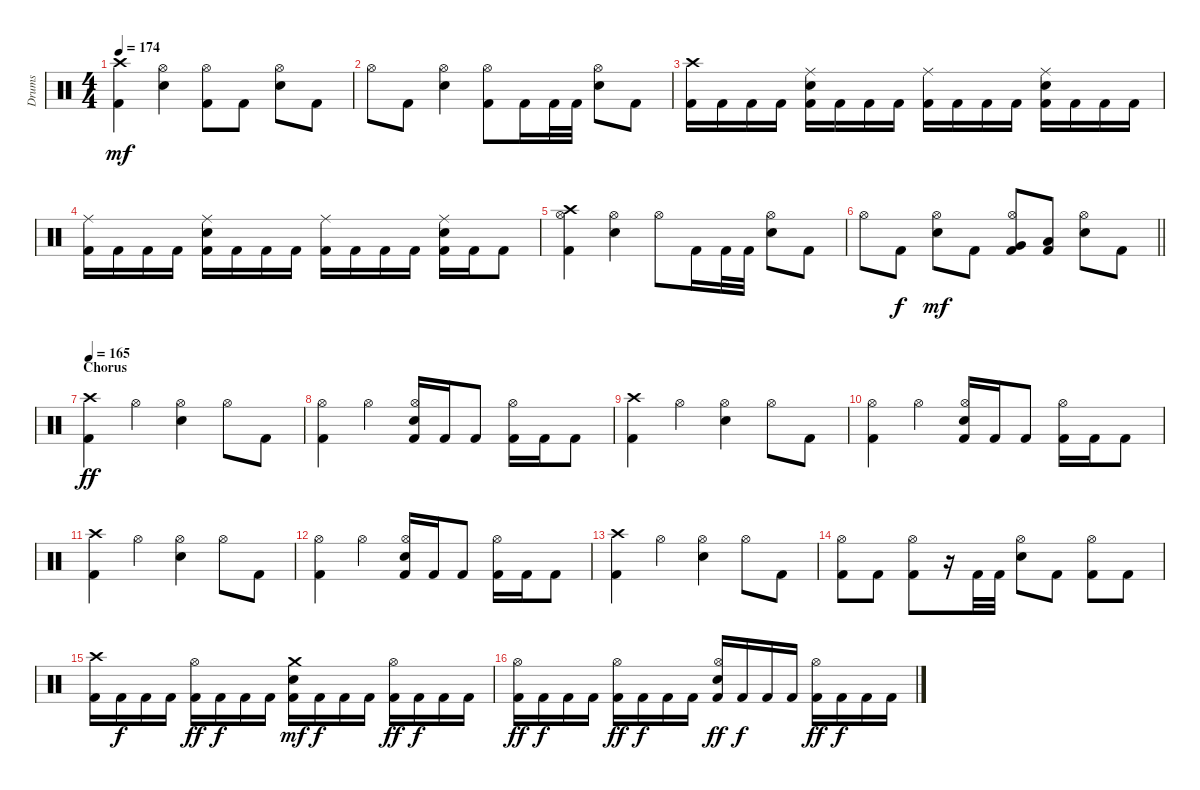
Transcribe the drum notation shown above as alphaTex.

\track ("Drums" "Drums") {instrument percussion}
\staff {score}
\articulation defaults
\ts (4 4)
\tempo 174
\clef neutral
\ks c
("Crash high (hit)" "Kick (hit) 2").4{dy mf} ("Hi-Hat (open)" "Snare (hit) 2").4 ("Hi-Hat (open)" "Kick (hit) 2").8 "Kick (hit) 2".8 ("Hi-Hat (open)" "Snare (hit) 2").8 "Kick (hit) 2".8 |
"Hi-Hat (open)".8 "Kick (hit) 2".8 ("Hi-Hat (open)" "Snare (hit) 2").4 ("Hi-Hat (open)" "Kick (hit) 2").8 "Kick (hit) 2".16 "Kick (hit) 2".32 "Kick (hit) 2".32 ("Hi-Hat (open)" "Snare (hit) 2").8 "Kick (hit) 2".8 |
("Crash high (hit)" "Kick (hit) 2").16 "Kick (hit) 2".16 "Kick (hit) 2".16 "Kick (hit) 2".16 ("Ride (middle)" "Snare (hit) 2" "Kick (hit) 2").16 "Kick (hit) 2".16 "Kick (hit) 2".16 "Kick (hit) 2".16 ("Ride (middle)" "Kick (hit) 2").16 "Kick (hit) 2".16 "Kick (hit) 2".16 "Kick (hit) 2".16 ("Ride (middle)" "Snare (hit) 2" "Kick (hit) 2").16 "Kick (hit) 2".16 "Kick (hit) 2".16 "Kick (hit) 2".16 |
("Ride (middle)" "Kick (hit) 2").16 "Kick (hit) 2".16 "Kick (hit) 2".16 "Kick (hit) 2".16 ("Ride (middle)" "Snare (hit) 2" "Kick (hit) 2").16 "Kick (hit) 2".16 "Kick (hit) 2".16 "Kick (hit) 2".16 ("Ride (middle)" "Kick (hit) 2").16 "Kick (hit) 2".16 "Kick (hit) 2".16 "Kick (hit) 2".16 ("Ride (middle)" "Snare (hit) 2" "Kick (hit) 2").16 "Kick (hit) 2".16 "Kick (hit) 2".8 |
("Crash high (hit)" "Hi-Hat (open)" "Kick (hit) 2").4 ("Hi-Hat (open)" "Snare (hit) 2").4 "Hi-Hat (open)".8 "Kick (hit) 2".16 "Kick (hit) 2".32 "Kick (hit) 2".32 ("Hi-Hat (open)" "Snare (hit) 2").8 "Kick (hit) 2".8 |
\barLineRight lightlight "Hi-Hat (open)".8 "Kick (hit) 2".8{dy f}
("Hi-Hat (open)" "Snare (hit) 2").8{dy mf} "Kick (hit) 2".8 ("Very Low Tom (hit)" "Hi-Hat (open)" "Kick (hit) 2").8 ("Low Floor Tom (hit)" "Kick (hit) 2").8 ("Hi-Hat (open)" "Snare (hit) 2").8 "Kick (hit) 2".8 |
\section ("" "Chorus")
\tempo 165
("Crash high (hit)" "Kick (hit) 2").4{dy ff} "Hi-Hat (open)".4 ("Hi-Hat (open)" "Snare (hit) 2").4 "Hi-Hat (open)".8 "Kick (hit) 2".8 |
("Hi-Hat (open)" "Kick (hit) 2").4 "Hi-Hat (open)".4 ("Hi-Hat (open)" "Snare (hit) 2" "Kick (hit) 2").16 "Kick (hit) 2".16 "Kick (hit) 2".8 ("Hi-Hat (open)" "Kick (hit) 2").16 "Kick (hit) 2".16 "Kick (hit) 2".8 |
("Crash high (hit)" "Kick (hit) 2").4 "Hi-Hat (open)".4 ("Hi-Hat (open)" "Snare (hit) 2").4 "Hi-Hat (open)".8 "Kick (hit) 2".8 |
("Hi-Hat (open)" "Kick (hit) 2").4 "Hi-Hat (open)".4 ("Hi-Hat (open)" "Snare (hit) 2" "Kick (hit) 2").16 "Kick (hit) 2".16 "Kick (hit) 2".8 ("Hi-Hat (open)" "Kick (hit) 2").16 "Kick (hit) 2".16 "Kick (hit) 2".8 |
("Crash high (hit)" "Kick (hit) 2").4 "Hi-Hat (open)".4 ("Hi-Hat (open)" "Snare (hit) 2").4 "Hi-Hat (open)".8 "Kick (hit) 2".8 |
("Hi-Hat (open)" "Kick (hit) 2").4 "Hi-Hat (open)".4 ("Hi-Hat (open)" "Snare (hit) 2" "Kick (hit) 2").16 "Kick (hit) 2".16 "Kick (hit) 2".8 ("Hi-Hat (open)" "Kick (hit) 2").16 "Kick (hit) 2".16 "Kick (hit) 2".8 |
("Crash high (hit)" "Kick (hit) 2").4 "Hi-Hat (open)".4 ("Hi-Hat (open)" "Snare (hit) 2").4 "Hi-Hat (open)".8 "Kick (hit) 2".8 |
("Hi-Hat (open)" "Kick (hit) 2").8 "Kick (hit) 2".8 ("Hi-Hat (open)" "Kick (hit) 2").8 r.16 "Kick (hit) 2".32 "Kick (hit) 2".32 ("Hi-Hat (open)" "Snare (hit) 2").8 "Kick (hit) 2".8 ("Hi-Hat (open)" "Kick (hit) 2").8 "Kick (hit) 2".8 |
("Crash high (hit)" "Kick (hit) 2").16 "Kick (hit) 2".16{dy f} "Kick (hit) 2".16 "Kick (hit) 2".16 ("Hi-Hat (open)" "Kick (hit) 2").16{dy ff} "Kick (hit) 2".16{dy f} "Kick (hit) 2".16 "Kick (hit) 2".16 ("Crash medium (hit)" "Snare (hit) 2" "Kick (hit) 2").16{dy mf} "Kick (hit) 2".16{dy f} "Kick (hit) 2".16 "Kick (hit) 2".16 ("Hi-Hat (open)" "Kick (hit) 2").16{dy ff} "Kick (hit) 2".16{dy f} "Kick (hit) 2".16 "Kick (hit) 2".16 |
("Hi-Hat (open)" "Kick (hit) 2").16{dy ff} "Kick (hit) 2".16{dy f} "Kick (hit) 2".16 "Kick (hit) 2".16 ("Hi-Hat (open)" "Kick (hit) 2").16{dy ff} "Kick (hit) 2".16{dy f} "Kick (hit) 2".16 "Kick (hit) 2".16 ("Hi-Hat (open)" "Snare (hit) 2" "Kick (hit) 2").16{dy ff} "Kick (hit) 2".16{dy f} "Kick (hit) 2".16 "Kick (hit) 2".16 ("Hi-Hat (open)" "Kick (hit) 2").16{dy ff} "Kick (hit) 2".16{dy f} "Kick (hit) 2".16 "Kick (hit) 2".16
